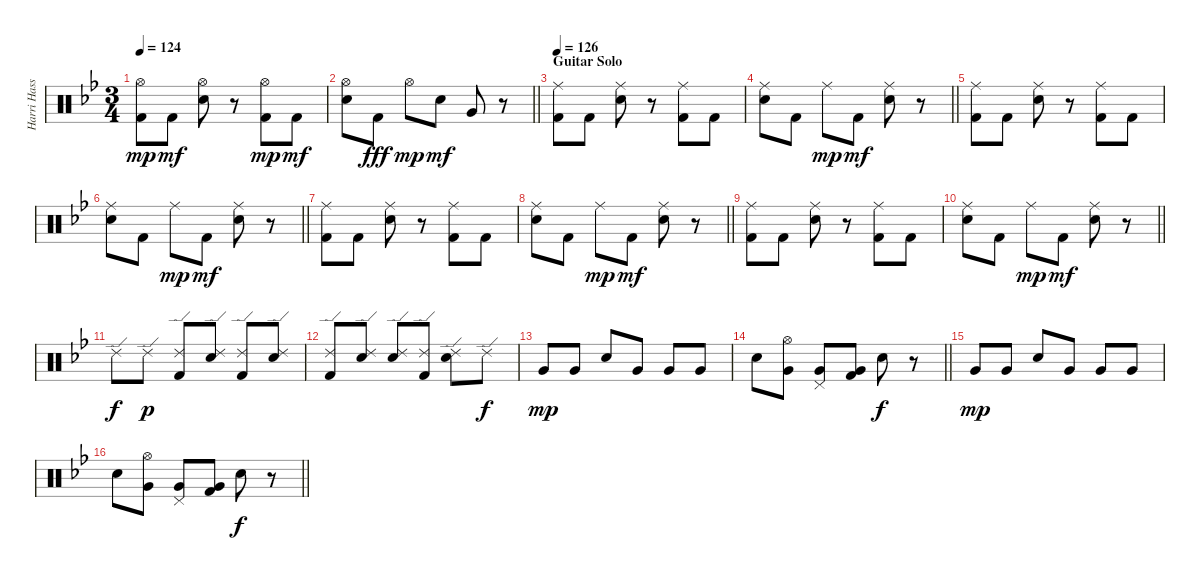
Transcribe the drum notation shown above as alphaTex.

\track ("Harri Hassin (drums)" "Harri Hass") {instrument percussion}
\staff {score}
\articulation defaults
\ts (3 4)
\tempo 124
\clef neutral
\ks bb
("Hi-Hat (open)" "Kick (hit) 2").8{dy mp} "Kick (hit) 2".8{dy mf} ("Hi-Hat (open)" "Electric Snare (hit)").8 r.8 ("Hi-Hat (open)" "Kick (hit) 2").8{dy mp} "Kick (hit) 2".8{dy mf} |
\barLineRight lightlight
("Hi-Hat (open)" "Electric Snare (hit)").8 "Kick (hit) 2".8{dy fff} "Hi-Hat (open)".8{dy mp} "Electric Snare (hit)".8{dy mf} "Very Low Tom (hit)".8 r.8 |
\section ("" "Guitar Solo")
\tempo 126
("Ride (middle)" "Kick (hit) 2").8 "Kick (hit) 2".8 ("Ride (middle)" "Electric Snare (hit)").8 r.8 ("Ride (middle)" "Kick (hit) 2").8 "Kick (hit) 2".8 |
\barLineRight lightlight
("Ride (middle)" "Electric Snare (hit)").8 "Kick (hit) 2".8 "Ride (middle)".8{dy mp} "Kick (hit) 2".8{dy mf} ("Ride (middle)" "Electric Snare (hit)").8 r.8 |
("Ride (middle)" "Kick (hit) 2").8 "Kick (hit) 2".8 ("Ride (middle)" "Electric Snare (hit)").8 r.8 ("Ride (middle)" "Kick (hit) 2").8 "Kick (hit) 2".8 |
\barLineRight lightlight
("Ride (middle)" "Electric Snare (hit)").8 "Kick (hit) 2".8 "Ride (middle)".8{dy mp} "Kick (hit) 2".8{dy mf} ("Ride (middle)" "Electric Snare (hit)").8 r.8 |
("Ride (middle)" "Kick (hit) 2").8 "Kick (hit) 2".8 ("Ride (middle)" "Electric Snare (hit)").8 r.8 ("Ride (middle)" "Kick (hit) 2").8 "Kick (hit) 2".8 |
\barLineRight lightlight
("Ride (middle)" "Electric Snare (hit)").8 "Kick (hit) 2".8 "Ride (middle)".8{dy mp} "Kick (hit) 2".8{dy mf} ("Ride (middle)" "Electric Snare (hit)").8 r.8 |
("Ride (middle)" "Kick (hit) 2").8 "Kick (hit) 2".8 ("Ride (middle)" "Electric Snare (hit)").8 r.8 ("Ride (middle)" "Kick (hit) 2").8 "Kick (hit) 2".8 |
\barLineRight lightlight
("Ride (middle)" "Electric Snare (hit)").8 "Kick (hit) 2".8 "Ride (middle)".8{dy mp} "Kick (hit) 2".8{dy mf} ("Ride (middle)" "Electric Snare (hit)").8 r.8 |
"Ride (edge) 2".8{dy f} "Ride (edge) 2".8{dy p} ("Ride (edge) 2" "Kick (hit) 2").8 ("Ride (edge) 2" "Electric Snare (hit)").8 ("Ride (edge) 2" "Kick (hit) 2").8 ("Ride (edge) 2" "Electric Snare (hit)").8 |
("Ride (edge) 2" "Kick (hit) 2").8 ("Ride (edge) 2" "Electric Snare (hit)").8 ("Ride (edge) 2" "Electric Snare (hit)").8 ("Ride (edge) 2" "Kick (hit) 2").8 ("Ride (edge) 2" "Electric Snare (hit)").8 "Ride (edge) 2".8{dy f} |
"Very Low Tom (hit)".8{dy mp} "Very Low Tom (hit)".8 "Electric Snare (hit)".8 "Very Low Tom (hit)".8 "Very Low Tom (hit)".8 "Very Low Tom (hit)".8 |
\barLineRight lightlight "Electric Snare (hit)".8
("Hi-Hat (open)" "Very Low Tom (hit)").8 ("Pedal Hi-Hat (hit)" "Very Low Tom (hit)").8 ("Very Low Tom (hit)" "Kick (hit) 2").8 "Electric Snare (hit)".8{dy f} r.8 |
"Very Low Tom (hit)".8{dy mp} "Very Low Tom (hit)".8 "Electric Snare (hit)".8 "Very Low Tom (hit)".8 "Very Low Tom (hit)".8 "Very Low Tom (hit)".8 |
\barLineRight lightlight "Electric Snare (hit)".8
("Hi-Hat (open)" "Very Low Tom (hit)").8 ("Pedal Hi-Hat (hit)" "Very Low Tom (hit)").8 ("Very Low Tom (hit)" "Kick (hit) 2").8 "Electric Snare (hit)".8{dy f} r.8
